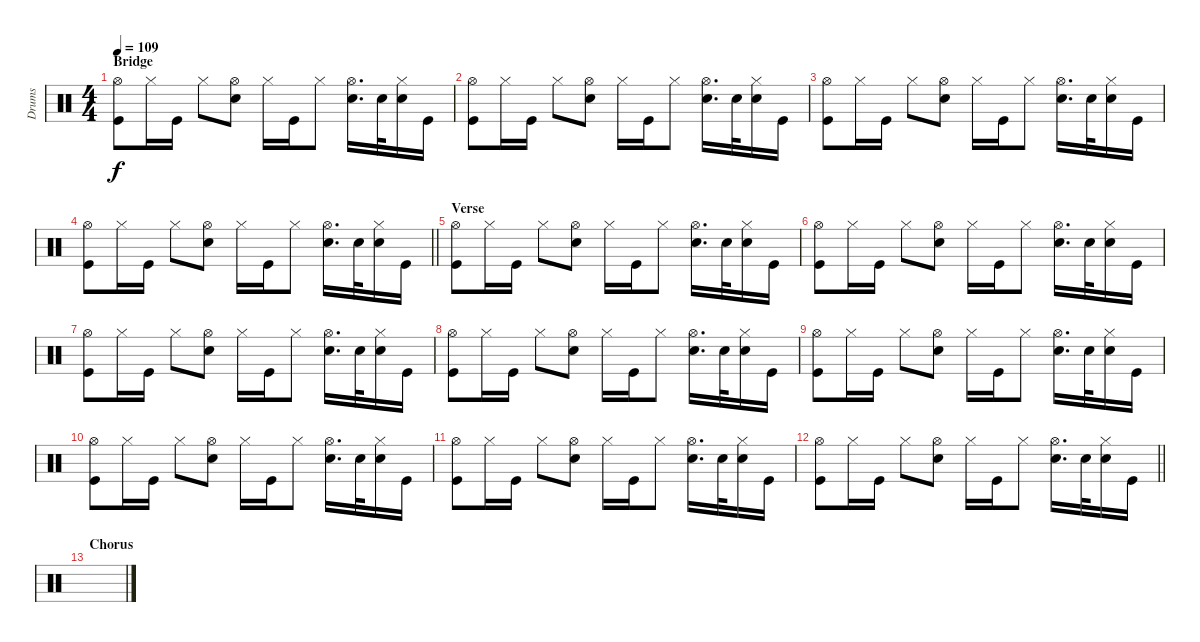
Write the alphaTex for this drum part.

\track ("Drums" "Drums") {instrument percussion}
\staff {score}
\articulation defaults
\ts (4 4)
\section ("" "Bridge")
\tempo 109
\clef neutral
\ks c
("Hi-Hat (open)" "Kick (hit)").8{dy f} "Hi-Hat (closed)".16 "Kick (hit)".16 "Hi-Hat (closed)".8 ("Hi-Hat (open)" "Electric Snare (hit)").8 "Hi-Hat (closed)".16 "Kick (hit)".16 "Hi-Hat (closed)".8 ("Hi-Hat (open)" "Electric Snare (hit)").16{d} "Electric Snare (hit)".32 ("Hi-Hat (closed)" "Electric Snare (hit)").16 "Kick (hit)".16 |
("Hi-Hat (open)" "Kick (hit)").8 "Hi-Hat (closed)".16 "Kick (hit)".16 "Hi-Hat (closed)".8 ("Hi-Hat (open)" "Electric Snare (hit)").8 "Hi-Hat (closed)".16 "Kick (hit)".16 "Hi-Hat (closed)".8 ("Hi-Hat (open)" "Electric Snare (hit)").16{d} "Electric Snare (hit)".32 ("Hi-Hat (closed)" "Electric Snare (hit)").16 "Kick (hit)".16 |
("Hi-Hat (open)" "Kick (hit)").8 "Hi-Hat (closed)".16 "Kick (hit)".16 "Hi-Hat (closed)".8 ("Hi-Hat (open)" "Electric Snare (hit)").8 "Hi-Hat (closed)".16 "Kick (hit)".16 "Hi-Hat (closed)".8 ("Hi-Hat (open)" "Electric Snare (hit)").16{d} "Electric Snare (hit)".32 ("Hi-Hat (closed)" "Electric Snare (hit)").16 "Kick (hit)".16 |
\barLineRight lightlight
("Hi-Hat (open)" "Kick (hit)").8 "Hi-Hat (closed)".16 "Kick (hit)".16 "Hi-Hat (closed)".8 ("Hi-Hat (open)" "Electric Snare (hit)").8 "Hi-Hat (closed)".16 "Kick (hit)".16 "Hi-Hat (closed)".8 ("Hi-Hat (open)" "Electric Snare (hit)").16{d} "Electric Snare (hit)".32 ("Hi-Hat (closed)" "Electric Snare (hit)").16 "Kick (hit)".16 |
\section ("" "Verse")
("Hi-Hat (open)" "Kick (hit)").8 "Hi-Hat (closed)".16 "Kick (hit)".16 "Hi-Hat (closed)".8 ("Hi-Hat (open)" "Electric Snare (hit)").8 "Hi-Hat (closed)".16 "Kick (hit)".16 "Hi-Hat (closed)".8 ("Hi-Hat (open)" "Electric Snare (hit)").16{d} "Electric Snare (hit)".32 ("Hi-Hat (closed)" "Electric Snare (hit)").16 "Kick (hit)".16 |
("Hi-Hat (open)" "Kick (hit)").8 "Hi-Hat (closed)".16 "Kick (hit)".16 "Hi-Hat (closed)".8 ("Hi-Hat (open)" "Electric Snare (hit)").8 "Hi-Hat (closed)".16 "Kick (hit)".16 "Hi-Hat (closed)".8 ("Hi-Hat (open)" "Electric Snare (hit)").16{d} "Electric Snare (hit)".32 ("Hi-Hat (closed)" "Electric Snare (hit)").16 "Kick (hit)".16 |
("Hi-Hat (open)" "Kick (hit)").8 "Hi-Hat (closed)".16 "Kick (hit)".16 "Hi-Hat (closed)".8 ("Hi-Hat (open)" "Electric Snare (hit)").8 "Hi-Hat (closed)".16 "Kick (hit)".16 "Hi-Hat (closed)".8 ("Hi-Hat (open)" "Electric Snare (hit)").16{d} "Electric Snare (hit)".32 ("Hi-Hat (closed)" "Electric Snare (hit)").16 "Kick (hit)".16 |
("Hi-Hat (open)" "Kick (hit)").8 "Hi-Hat (closed)".16 "Kick (hit)".16 "Hi-Hat (closed)".8 ("Hi-Hat (open)" "Electric Snare (hit)").8 "Hi-Hat (closed)".16 "Kick (hit)".16 "Hi-Hat (closed)".8 ("Hi-Hat (open)" "Electric Snare (hit)").16{d} "Electric Snare (hit)".32 ("Hi-Hat (closed)" "Electric Snare (hit)").16 "Kick (hit)".16 |
("Hi-Hat (open)" "Kick (hit)").8 "Hi-Hat (closed)".16 "Kick (hit)".16 "Hi-Hat (closed)".8 ("Hi-Hat (open)" "Electric Snare (hit)").8 "Hi-Hat (closed)".16 "Kick (hit)".16 "Hi-Hat (closed)".8 ("Hi-Hat (open)" "Electric Snare (hit)").16{d} "Electric Snare (hit)".32 ("Hi-Hat (closed)" "Electric Snare (hit)").16 "Kick (hit)".16 |
("Hi-Hat (open)" "Kick (hit)").8 "Hi-Hat (closed)".16 "Kick (hit)".16 "Hi-Hat (closed)".8 ("Hi-Hat (open)" "Electric Snare (hit)").8 "Hi-Hat (closed)".16 "Kick (hit)".16 "Hi-Hat (closed)".8 ("Hi-Hat (open)" "Electric Snare (hit)").16{d} "Electric Snare (hit)".32 ("Hi-Hat (closed)" "Electric Snare (hit)").16 "Kick (hit)".16 |
("Hi-Hat (open)" "Kick (hit)").8 "Hi-Hat (closed)".16 "Kick (hit)".16 "Hi-Hat (closed)".8 ("Hi-Hat (open)" "Electric Snare (hit)").8 "Hi-Hat (closed)".16 "Kick (hit)".16 "Hi-Hat (closed)".8 ("Hi-Hat (open)" "Electric Snare (hit)").16{d} "Electric Snare (hit)".32 ("Hi-Hat (closed)" "Electric Snare (hit)").16 "Kick (hit)".16 |
\barLineRight lightlight
("Hi-Hat (open)" "Kick (hit)").8 "Hi-Hat (closed)".16 "Kick (hit)".16 "Hi-Hat (closed)".8 ("Hi-Hat (open)" "Electric Snare (hit)").8 "Hi-Hat (closed)".16 "Kick (hit)".16 "Hi-Hat (closed)".8 ("Hi-Hat (open)" "Electric Snare (hit)").16{d} "Electric Snare (hit)".32 ("Hi-Hat (closed)" "Electric Snare (hit)").16 "Kick (hit)".16 |
\section ("" "Chorus")
